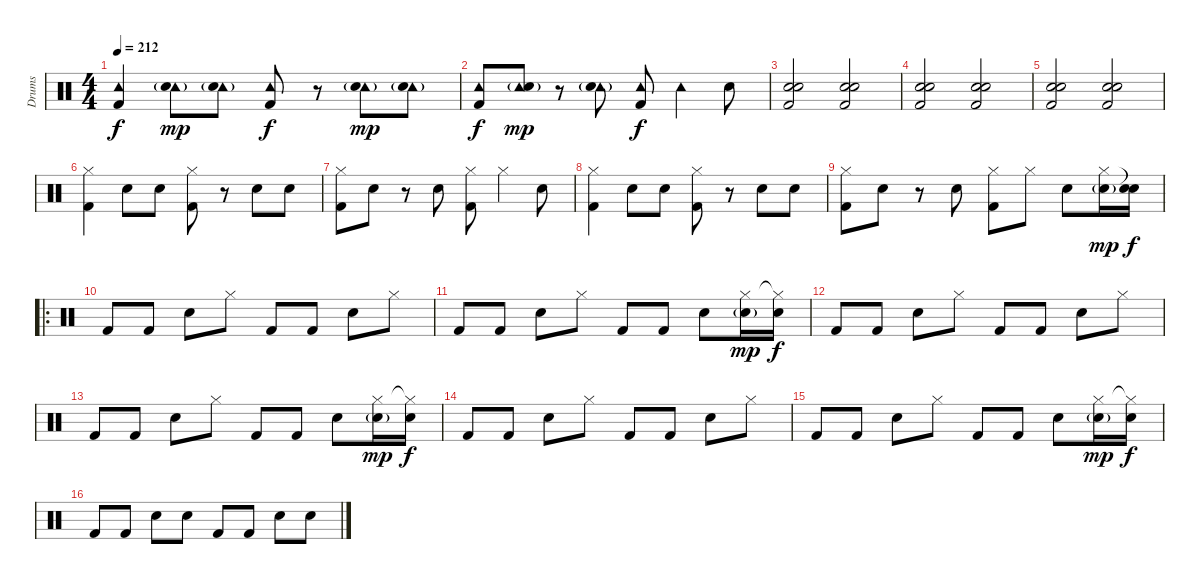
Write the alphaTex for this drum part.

\track ("Drums" "Drums") {instrument percussion}
\staff {score}
\articulation defaults
\ts (4 4)
\tempo 212
\clef neutral
\ks c
("Tambourine (hit)" "Kick (hit) 2").4{dy f} ("Tambourine (hit)" "Electric Snare (hit)"{g}).8{dy mp} ("Tambourine (hit)" "Electric Snare (hit)"{g}).8 ("Tambourine (hit)" "Kick (hit) 2").8{dy f} r.8 ("Tambourine (hit)" "Electric Snare (hit)"{g}).8{dy mp} ("Tambourine (hit)" "Electric Snare (hit)"{g}).8 |
("Tambourine (hit)" "Kick (hit) 2").8{dy f} ("Tambourine (hit)" "Electric Snare (hit)"{g}).8{dy mp} r.8 ("Tambourine (hit)" "Electric Snare (hit)"{g}).8 ("Tambourine (hit)" "Kick (hit) 2").8{dy f} "Tambourine (hit)".4 "Electric Snare (hit)".8 |
("Electric Snare (hit)" "Electric Snare (hit)" "Kick (hit) 2").2 ("Electric Snare (hit)" "Electric Snare (hit)" "Kick (hit) 2").2 |
("Electric Snare (hit)" "Electric Snare (hit)" "Kick (hit) 2").2 ("Electric Snare (hit)" "Electric Snare (hit)" "Kick (hit) 2").2 |
("Electric Snare (hit)" "Electric Snare (hit)" "Kick (hit) 2").2 ("Electric Snare (hit)" "Electric Snare (hit)" "Kick (hit) 2").2 |
("Hi-Hat (closed)" "Kick (hit) 2").4 "Electric Snare (hit)".8 "Electric Snare (hit)".8 ("Hi-Hat (closed)" "Kick (hit) 2").8 r.8 "Electric Snare (hit)".8 "Electric Snare (hit)".8 |
("Hi-Hat (closed)" "Kick (hit) 2").8 "Electric Snare (hit)".8 r.8 "Electric Snare (hit)".8 ("Hi-Hat (closed)" "Kick (hit) 2").8 "Hi-Hat (closed)".4 "Electric Snare (hit)".8 |
("Hi-Hat (closed)" "Kick (hit) 2").4 "Electric Snare (hit)".8 "Electric Snare (hit)".8 ("Hi-Hat (closed)" "Kick (hit) 2").8 r.8 "Electric Snare (hit)".8 "Electric Snare (hit)".8 |
("Hi-Hat (closed)" "Kick (hit) 2").8 "Electric Snare (hit)".8 r.8 "Electric Snare (hit)".8 ("Hi-Hat (closed)" "Kick (hit) 2").8 "Hi-Hat (closed)".8 "Electric Snare (hit)".8 ("Hi-Hat (closed)" "Electric Snare (hit)"{g}).16{dy mp} ("Snare (hit)"{t} "Electric Snare (hit)").16{dy f} |
\ro "Kick (hit) 2".8 "Kick (hit) 2".8 "Electric Snare (hit)".8 "Hi-Hat (closed)".8 "Kick (hit) 2".8 "Kick (hit) 2".8 "Electric Snare (hit)".8 "Hi-Hat (closed)".8
|
"Kick (hit) 2".8 "Kick (hit) 2".8 "Electric Snare (hit)".8 "Hi-Hat (closed)".8 "Kick (hit) 2".8 "Kick (hit) 2".8 "Electric Snare (hit)".8 ("Hi-Hat (closed)" "Electric Snare (hit)"{g}).16{dy mp} ("Hi-Hat (closed)"{t} "Electric Snare (hit)").16{dy f} |
"Kick (hit) 2".8 "Kick (hit) 2".8 "Electric Snare (hit)".8 "Hi-Hat (closed)".8 "Kick (hit) 2".8 "Kick (hit) 2".8 "Electric Snare (hit)".8 "Hi-Hat (closed)".8 |
"Kick (hit) 2".8 "Kick (hit) 2".8 "Electric Snare (hit)".8 "Hi-Hat (closed)".8 "Kick (hit) 2".8 "Kick (hit) 2".8 "Electric Snare (hit)".8 ("Hi-Hat (closed)" "Electric Snare (hit)"{g}).16{dy mp} ("Hi-Hat (closed)"{t} "Electric Snare (hit)").16{dy f} |
"Kick (hit) 2".8 "Kick (hit) 2".8 "Electric Snare (hit)".8 "Hi-Hat (closed)".8 "Kick (hit) 2".8 "Kick (hit) 2".8 "Electric Snare (hit)".8 "Hi-Hat (closed)".8 |
"Kick (hit) 2".8 "Kick (hit) 2".8 "Electric Snare (hit)".8 "Hi-Hat (closed)".8 "Kick (hit) 2".8 "Kick (hit) 2".8 "Electric Snare (hit)".8 ("Hi-Hat (closed)" "Electric Snare (hit)"{g}).16{dy mp} ("Hi-Hat (closed)"{t} "Electric Snare (hit)").16{dy f} |
"Kick (hit) 2".8 "Kick (hit) 2".8 "Electric Snare (hit)".8 "Electric Snare (hit)".8 "Kick (hit) 2".8 "Kick (hit) 2".8 "Electric Snare (hit)".8 "Electric Snare (hit)".8
